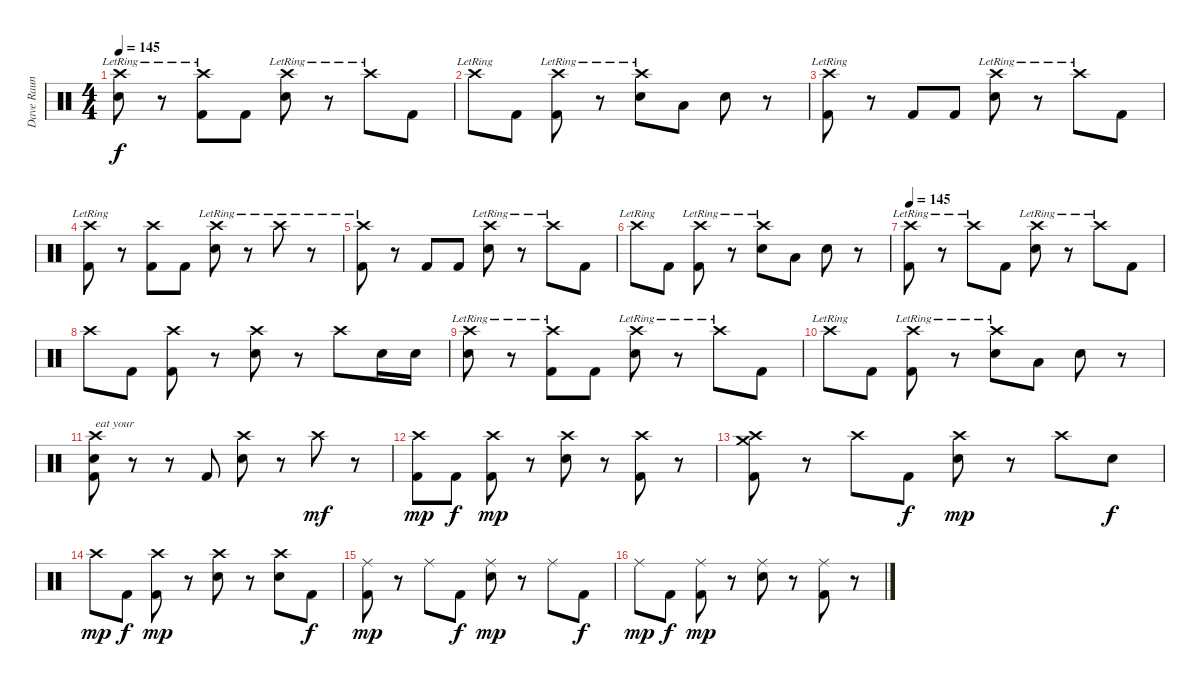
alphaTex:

\track ("Dave Raun" "Dave Raun") {instrument percussion}
\staff {score}
\articulation defaults
\ts (4 4)
\tempo 145
\clef neutral
\ks c
("Crash high (hit)"{lr} "Electric Snare (hit)").8{dy f} r.8 ("Crash high (hit)"{lr} "Kick (hit) 2").8 "Kick (hit) 2".8 ("Crash high (hit)"{lr} "Electric Snare (hit)").8 r.8 "Crash high (hit)"{lr}.8 "Kick (hit) 2".8 |
"Crash high (hit)"{lr}.8 "Kick (hit) 2".8 ("Crash high (hit)"{lr} "Kick (hit) 2").8 r.8 ("Crash high (hit)"{lr} "Electric Snare (hit)").8 "Low Floor Tom (hit)".8 "Electric Snare (hit)".8 r.8 |
("Crash high (hit)"{lr} "Kick (hit) 2").8 r.8 "Kick (hit) 2".8 "Kick (hit) 2".8 ("Crash high (hit)"{lr} "Electric Snare (hit)").8 r.8 "Crash high (hit)"{lr}.8 "Kick (hit) 2".8 |
("Crash high (hit)"{lr} "Kick (hit) 2").8 r.8 ("Crash high (hit)" "Kick (hit) 2").8 "Kick (hit) 2".8 ("Crash high (hit)"{lr} "Electric Snare (hit)").8 r.8 "Crash high (hit)"{lr}.8 r.8 |
("Crash high (hit)"{lr} "Kick (hit) 2").8 r.8 "Kick (hit) 2".8 "Kick (hit) 2".8 ("Crash high (hit)"{lr} "Electric Snare (hit)").8 r.8 "Crash high (hit)"{lr}.8 "Kick (hit) 2".8 |
"Crash high (hit)"{lr}.8 "Kick (hit) 2".8 ("Crash high (hit)"{lr} "Kick (hit) 2").8 r.8 ("Crash high (hit)"{lr} "Electric Snare (hit)").8 "Low Floor Tom (hit)".8 "Electric Snare (hit)".8 r.8 |
\tempo 145
("Crash high (hit)"{lr} "Kick (hit) 2").8 r.8 "Crash high (hit)"{lr}.8 "Kick (hit) 2".8 ("Crash high (hit)"{lr} "Electric Snare (hit)").8 r.8 "Crash high (hit)"{lr}.8 "Kick (hit) 2".8 |
"Crash high (hit)".8 "Kick (hit) 2".8 ("Crash high (hit)" "Kick (hit) 2").8 r.8 ("Crash high (hit)" "Electric Snare (hit)").8 r.8 "Crash high (hit)".8 "Electric Snare (hit)".16 "Electric Snare (hit)".16 |
("Crash high (hit)"{lr} "Electric Snare (hit)").8 r.8 ("Crash high (hit)"{lr} "Kick (hit) 2").8 "Kick (hit) 2".8 ("Crash high (hit)"{lr} "Electric Snare (hit)").8 r.8 "Crash high (hit)"{lr}.8 "Kick (hit) 2".8 |
"Crash high (hit)"{lr}.8 "Kick (hit) 2".8 ("Crash high (hit)"{lr} "Kick (hit) 2").8 r.8 ("Crash high (hit)"{lr} "Electric Snare (hit)").8 "Low Floor Tom (hit)".8 "Electric Snare (hit)".8 r.8 |
("Crash high (hit)" "Electric Snare (hit)" "Kick (hit) 2").8{txt "eat your"} r.8 r.8 "Kick (hit) 2".8 ("Crash high (hit)" "Electric Snare (hit)").8 r.8 "Crash high (hit)".8{dy mf} r.8 |
("Crash high (hit)" "Kick (hit) 2").8{dy mp} "Kick (hit) 2".8{dy f} ("Crash high (hit)" "Kick (hit) 2").8{dy mp} r.8 ("Crash high (hit)" "Electric Snare (hit)").8 r.8 ("Crash high (hit)" "Kick (hit) 2").8 r.8 |
("Crash high (hit)" "Crash medium (hit)" "Kick (hit) 2").8 r.8 "Crash high (hit)".8 "Kick (hit) 2".8{dy f} ("Crash high (hit)" "Electric Snare (hit)").8{dy mp} r.8 "Crash high (hit)".8 "Electric Snare (hit)".8{dy f} |
"Crash high (hit)".8{dy mp} "Kick (hit) 2".8{dy f} ("Crash high (hit)" "Kick (hit) 2").8{dy mp} r.8 ("Crash high (hit)" "Electric Snare (hit)").8 r.8 ("Crash high (hit)" "Electric Snare (hit)").8 "Kick (hit) 2".8{dy f} |
("Ride (middle)" "Kick (hit) 2").8{dy mp} r.8 "Ride (middle)".8 "Kick (hit) 2".8{dy f} ("Ride (middle)" "Electric Snare (hit)").8{dy mp} r.8 "Ride (middle)".8 "Kick (hit) 2".8{dy f} |
"Ride (middle)".8{dy mp} "Kick (hit) 2".8{dy f} ("Ride (middle)" "Kick (hit) 2").8{dy mp} r.8 ("Ride (middle)" "Electric Snare (hit)").8 r.8 ("Ride (middle)" "Kick (hit) 2").8 r.8
